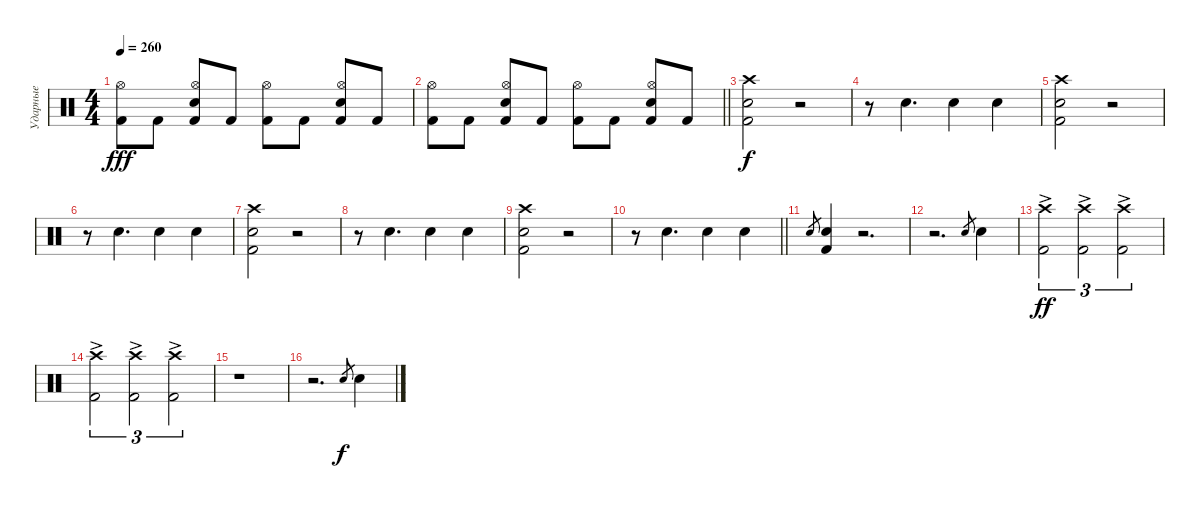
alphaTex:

\track ("Ударные" "Ударные") {instrument percussion}
\staff {score}
\articulation defaults
\ts (4 4)
\tempo 260
\clef neutral
\ks c
("Kick (hit) 2" "Hi-Hat (open)").8{dy fff} "Kick (hit) 2".8 ("Kick (hit) 2" "Snare (hit) 2" "Hi-Hat (open)").8 "Kick (hit) 2".8 ("Kick (hit) 2" "Hi-Hat (open)").8 "Kick (hit) 2".8 ("Kick (hit) 2" "Snare (hit) 2" "Hi-Hat (open)").8 "Kick (hit) 2".8 |
\barLineRight lightlight
("Kick (hit) 2" "Hi-Hat (open)").8 "Kick (hit) 2".8 ("Kick (hit) 2" "Snare (hit) 2" "Hi-Hat (open)").8 "Kick (hit) 2".8 ("Kick (hit) 2" "Hi-Hat (open)").8 "Kick (hit) 2".8 ("Kick (hit) 2" "Snare (hit) 2" "Hi-Hat (open)").8 "Kick (hit) 2".8 |
("Kick (hit) 2" "Snare (hit) 2" "Crash high (hit)").2{dy f} r.2 |
r.8 "Snare (hit) 2".4{d} "Snare (hit) 2".4 "Snare (hit) 2".4 |
("Kick (hit) 2" "Snare (hit) 2" "Crash high (hit)").2 r.2 |
r.8 "Snare (hit) 2".4{d} "Snare (hit) 2".4 "Snare (hit) 2".4 |
("Kick (hit) 2" "Snare (hit) 2" "Crash high (hit)").2 r.2 |
r.8 "Snare (hit) 2".4{d} "Snare (hit) 2".4 "Snare (hit) 2".4 |
("Kick (hit) 2" "Snare (hit) 2" "Crash high (hit)").2 r.2 |
\barLineRight lightlight
r.8 "Snare (hit) 2".4{d} "Snare (hit) 2".4 "Snare (hit) 2".4 |
"Snare (hit) 2".8{gr} ("Kick (hit) 2" "Snare (hit) 2").4 r.2{d} |
r.2{d} "Snare (hit) 2".8{gr} "Snare (hit) 2".4 |
("Kick (hit) 2" "Crash high (hit)"{ac}).2{tu (3 2) dy ff} ("Kick (hit) 2" "Crash high (hit)"{ac}).2{tu (3 2)} ("Kick (hit) 2" "Crash high (hit)"{ac}).2{tu (3 2)} |
("Kick (hit) 2" "Crash high (hit)"{ac}).2{tu (3 2)} ("Kick (hit) 2" "Crash high (hit)"{ac}).2{tu (3 2)} ("Kick (hit) 2" "Crash high (hit)"{ac}).2{tu (3 2)} |
r.1 |
r.2{d} "Snare (hit) 2".8{gr dy f} "Snare (hit) 2".4
